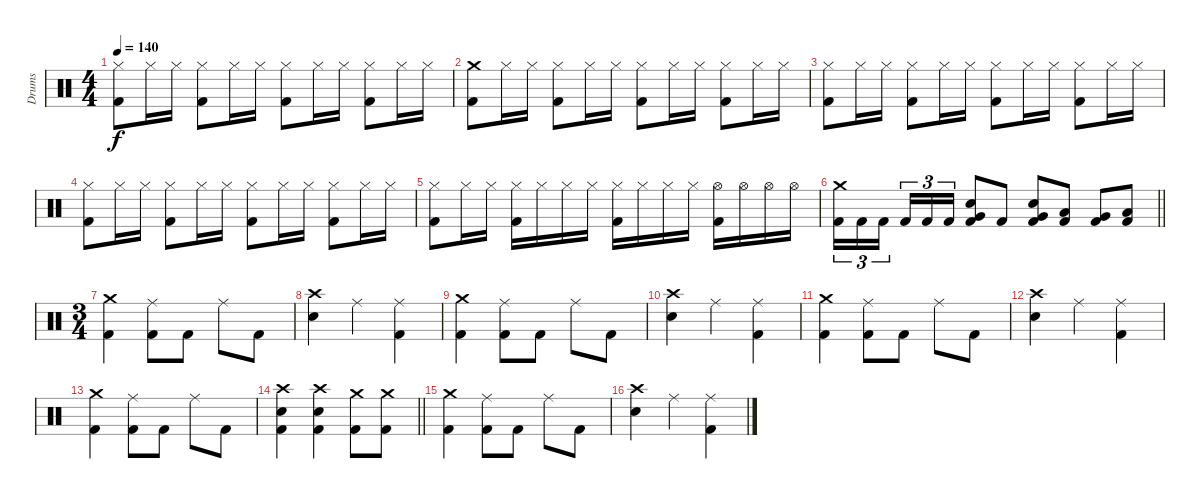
\track ("Drums" "Drums") {instrument percussion}
\staff {score}
\articulation defaults
\ts (4 4)
\tempo 140
\clef neutral
\ks c
("Hi-Hat (closed)" "Kick (hit) 2").8{dy f} "Hi-Hat (closed)".16 "Hi-Hat (closed)".16 ("Hi-Hat (closed)" "Kick (hit) 2").8 "Hi-Hat (closed)".16 "Hi-Hat (closed)".16 ("Hi-Hat (closed)" "Kick (hit) 2").8 "Hi-Hat (closed)".16 "Hi-Hat (closed)".16 ("Hi-Hat (closed)" "Kick (hit) 2").8 "Hi-Hat (closed)".16 "Hi-Hat (closed)".16 |
("Crash medium (hit)" "Kick (hit) 2").8 "Hi-Hat (closed)".16 "Hi-Hat (closed)".16 ("Hi-Hat (closed)" "Kick (hit) 2").8 "Hi-Hat (closed)".16 "Hi-Hat (closed)".16 ("Hi-Hat (closed)" "Kick (hit) 2").8 "Hi-Hat (closed)".16 "Hi-Hat (closed)".16 ("Hi-Hat (closed)" "Kick (hit) 2").8 "Hi-Hat (closed)".16 "Hi-Hat (closed)".16 |
("Hi-Hat (closed)" "Kick (hit) 2").8 "Hi-Hat (closed)".16 "Hi-Hat (closed)".16 ("Hi-Hat (closed)" "Kick (hit) 2").8 "Hi-Hat (closed)".16 "Hi-Hat (closed)".16 ("Hi-Hat (closed)" "Kick (hit) 2").8 "Hi-Hat (closed)".16 "Hi-Hat (closed)".16 ("Hi-Hat (closed)" "Kick (hit) 2").8 "Hi-Hat (closed)".16 "Hi-Hat (closed)".16 |
("Hi-Hat (closed)" "Kick (hit) 2").8 "Hi-Hat (closed)".16 "Hi-Hat (closed)".16 ("Hi-Hat (closed)" "Kick (hit) 2").8 "Hi-Hat (closed)".16 "Hi-Hat (closed)".16 ("Hi-Hat (closed)" "Kick (hit) 2").8 "Hi-Hat (closed)".16 "Hi-Hat (closed)".16 ("Hi-Hat (closed)" "Kick (hit) 2").8 "Hi-Hat (closed)".16 "Hi-Hat (closed)".16 |
("Hi-Hat (closed)" "Kick (hit) 2").8 "Hi-Hat (closed)".16 "Hi-Hat (closed)".16 ("Hi-Hat (closed)" "Kick (hit) 2").16 "Hi-Hat (closed)".16 "Hi-Hat (closed)".16 "Hi-Hat (closed)".16 ("Hi-Hat (closed)" "Kick (hit) 2").16 "Hi-Hat (closed)".16 "Hi-Hat (closed)".16 "Hi-Hat (closed)".16 ("Hi-Hat (open)" "Kick (hit) 2").16 "Hi-Hat (open)".16 "Hi-Hat (open)".16 "Hi-Hat (open)".16 |
\barLineRight lightlight
("Crash medium (hit)" "Kick (hit) 2").16{tu (3 2)} "Kick (hit) 2".16{tu (3 2)} "Kick (hit) 2".16{tu (3 2) beam splitsecondary} "Kick (hit) 2".16{tu (3 2)} "Kick (hit) 2".16{tu (3 2)} "Kick (hit) 2".16{tu (3 2)} ("Very Low Tom (hit)" "Electric Snare (hit)" "Kick (hit) 2").8 "Kick (hit) 2".8 ("Very Low Tom (hit)" "Electric Snare (hit)" "Kick (hit) 2").8 ("Low Tom (hit)" "Kick (hit) 2").8 ("Very Low Tom (hit)" "Kick (hit) 2").8 ("Low Floor Tom (hit)" "Kick (hit) 2").8 |
\ts (3 4)
("Crash medium (hit)" "Kick (hit) 2").4 ("Ride (middle)" "Kick (hit) 2").8 "Kick (hit) 2".8 "Ride (middle)".8 "Kick (hit) 2".8 |
("Crash high (hit)" "Electric Snare (hit)").4 "Ride (middle)".4 ("Ride (middle)" "Kick (hit) 2").4 |
("Crash medium (hit)" "Kick (hit) 2").4 ("Ride (middle)" "Kick (hit) 2").8 "Kick (hit) 2".8 "Ride (middle)".8 "Kick (hit) 2".8 |
("Crash high (hit)" "Electric Snare (hit)").4 "Ride (middle)".4 ("Ride (middle)" "Kick (hit) 2").4 |
("Crash medium (hit)" "Kick (hit) 2").4 ("Ride (middle)" "Kick (hit) 2").8 "Kick (hit) 2".8 "Ride (middle)".8 "Kick (hit) 2".8 |
("Crash high (hit)" "Electric Snare (hit)").4 "Ride (middle)".4 ("Ride (middle)" "Kick (hit) 2").4 |
("Crash medium (hit)" "Kick (hit) 2").4 ("Ride (middle)" "Kick (hit) 2").8 "Kick (hit) 2".8 "Ride (middle)".8 "Kick (hit) 2".8 |
\barLineRight lightlight
("Crash high (hit)" "Electric Snare (hit)" "Kick (hit) 2").4 ("Crash high (hit)" "Electric Snare (hit)" "Kick (hit) 2").4 ("Crash medium (hit)" "Kick (hit) 2").8 ("Crash medium (hit)" "Kick (hit) 2").8 |
("Crash medium (hit)" "Kick (hit) 2").4 ("Ride (middle)" "Kick (hit) 2").8 "Kick (hit) 2".8 "Ride (middle)".8 "Kick (hit) 2".8 |
("Crash high (hit)" "Electric Snare (hit)").4 "Ride (middle)".4 ("Ride (middle)" "Kick (hit) 2").4
